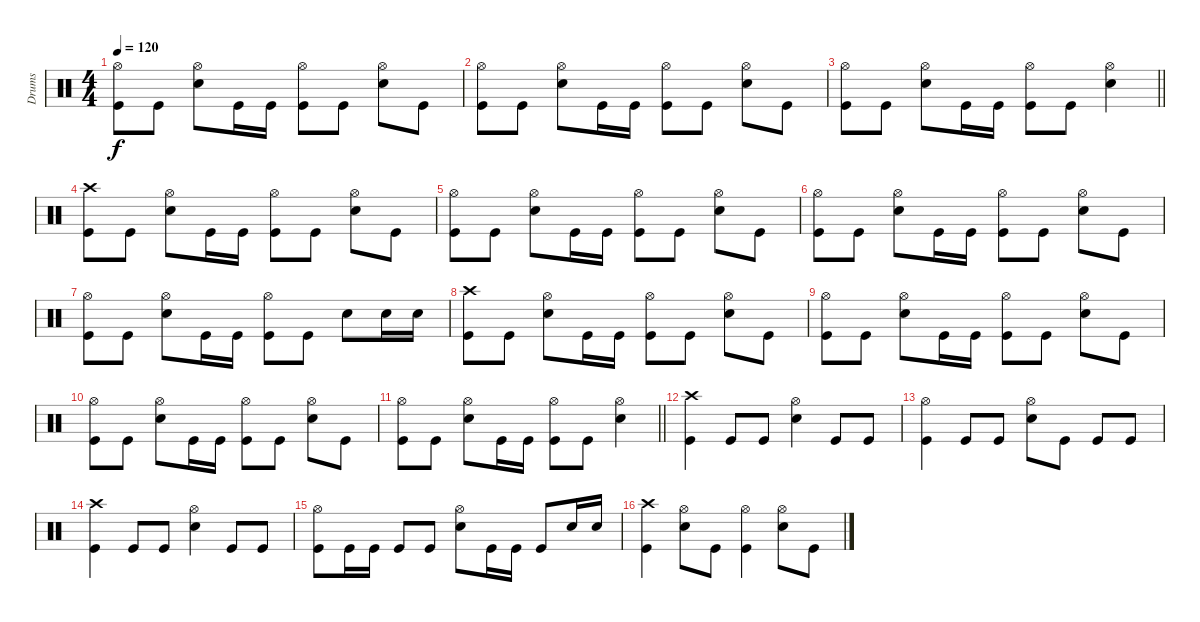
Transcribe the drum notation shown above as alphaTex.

\track ("Drums" "Drums") {instrument percussion}
\staff {score}
\articulation defaults
\ts (4 4)
\tempo 120
\clef neutral
\ks c
("Hi-Hat (open)" "Kick (hit)").8{dy f} "Kick (hit)".8 ("Hi-Hat (open)" "Electric Snare (hit)").8 "Kick (hit)".16 "Kick (hit)".16 ("Hi-Hat (open)" "Kick (hit)").8 "Kick (hit)".8 ("Hi-Hat (open)" "Electric Snare (hit)").8 "Kick (hit)".8 |
("Hi-Hat (open)" "Kick (hit)").8 "Kick (hit)".8 ("Hi-Hat (open)" "Electric Snare (hit)").8 "Kick (hit)".16 "Kick (hit)".16 ("Hi-Hat (open)" "Kick (hit)").8 "Kick (hit)".8 ("Hi-Hat (open)" "Electric Snare (hit)").8 "Kick (hit)".8 |
\barLineRight lightlight
("Hi-Hat (open)" "Kick (hit)").8 "Kick (hit)".8 ("Hi-Hat (open)" "Electric Snare (hit)").8 "Kick (hit)".16 "Kick (hit)".16 ("Hi-Hat (open)" "Kick (hit)").8 "Kick (hit)".8 ("Hi-Hat (open)" "Electric Snare (hit)").4 |
("Crash high (hit)" "Kick (hit)").8 "Kick (hit)".8 ("Hi-Hat (open)" "Electric Snare (hit)").8 "Kick (hit)".16 "Kick (hit)".16 ("Hi-Hat (open)" "Kick (hit)").8 "Kick (hit)".8 ("Hi-Hat (open)" "Electric Snare (hit)").8 "Kick (hit)".8 |
("Hi-Hat (open)" "Kick (hit)").8 "Kick (hit)".8 ("Hi-Hat (open)" "Electric Snare (hit)").8 "Kick (hit)".16 "Kick (hit)".16 ("Hi-Hat (open)" "Kick (hit)").8 "Kick (hit)".8 ("Hi-Hat (open)" "Electric Snare (hit)").8 "Kick (hit)".8 |
("Hi-Hat (open)" "Kick (hit)").8 "Kick (hit)".8 ("Hi-Hat (open)" "Electric Snare (hit)").8 "Kick (hit)".16 "Kick (hit)".16 ("Hi-Hat (open)" "Kick (hit)").8 "Kick (hit)".8 ("Hi-Hat (open)" "Electric Snare (hit)").8 "Kick (hit)".8 |
("Hi-Hat (open)" "Kick (hit)").8 "Kick (hit)".8 ("Hi-Hat (open)" "Electric Snare (hit)").8 "Kick (hit)".16 "Kick (hit)".16 ("Hi-Hat (open)" "Kick (hit)").8 "Kick (hit)".8 "Electric Snare (hit)".8 "Electric Snare (hit)".16 "Electric Snare (hit)".16 |
("Crash high (hit)" "Kick (hit)").8 "Kick (hit)".8 ("Hi-Hat (open)" "Electric Snare (hit)").8 "Kick (hit)".16 "Kick (hit)".16 ("Hi-Hat (open)" "Kick (hit)").8 "Kick (hit)".8 ("Hi-Hat (open)" "Electric Snare (hit)").8 "Kick (hit)".8 |
("Hi-Hat (open)" "Kick (hit)").8 "Kick (hit)".8 ("Hi-Hat (open)" "Electric Snare (hit)").8 "Kick (hit)".16 "Kick (hit)".16 ("Hi-Hat (open)" "Kick (hit)").8 "Kick (hit)".8 ("Hi-Hat (open)" "Electric Snare (hit)").8 "Kick (hit)".8 |
("Hi-Hat (open)" "Kick (hit)").8 "Kick (hit)".8 ("Hi-Hat (open)" "Electric Snare (hit)").8 "Kick (hit)".16 "Kick (hit)".16 ("Hi-Hat (open)" "Kick (hit)").8 "Kick (hit)".8 ("Hi-Hat (open)" "Electric Snare (hit)").8 "Kick (hit)".8 |
\barLineRight lightlight
("Hi-Hat (open)" "Kick (hit)").8 "Kick (hit)".8 ("Hi-Hat (open)" "Electric Snare (hit)").8 "Kick (hit)".16 "Kick (hit)".16 ("Hi-Hat (open)" "Kick (hit)").8 "Kick (hit)".8 ("Hi-Hat (open)" "Electric Snare (hit)").4 |
\section ("" "")
("Crash high (hit)" "Kick (hit)").4 "Kick (hit)".8 "Kick (hit)".8 ("Hi-Hat (open)" "Electric Snare (hit)").4 "Kick (hit)".8 "Kick (hit)".8 |
("Hi-Hat (open)" "Kick (hit)").4 "Kick (hit)".8 "Kick (hit)".8 ("Hi-Hat (open)" "Electric Snare (hit)").8 "Kick (hit)".8 "Kick (hit)".8 "Kick (hit)".8 |
("Crash high (hit)" "Kick (hit)").4 "Kick (hit)".8 "Kick (hit)".8 ("Hi-Hat (open)" "Electric Snare (hit)").4 "Kick (hit)".8 "Kick (hit)".8 |
("Hi-Hat (open)" "Kick (hit)").8 "Kick (hit)".16 "Kick (hit)".16 "Kick (hit)".8 "Kick (hit)".8 ("Hi-Hat (open)" "Electric Snare (hit)").8 "Kick (hit)".16 "Kick (hit)".16 "Kick (hit)".8 "Electric Snare (hit)".16 "Electric Snare (hit)".16 |
("Crash high (hit)" "Kick (hit)").4 ("Hi-Hat (open)" "Electric Snare (hit)").8 "Kick (hit)".8 ("Hi-Hat (open)" "Kick (hit)").4 ("Hi-Hat (open)" "Electric Snare (hit)").8 "Kick (hit)".8
